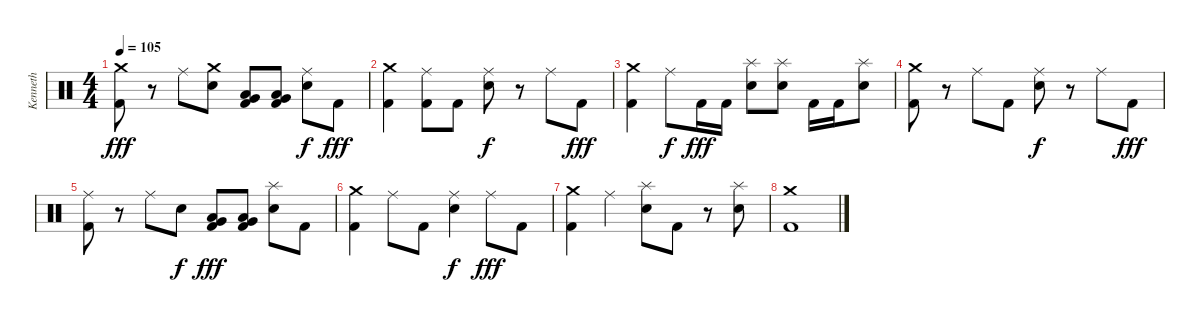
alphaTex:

\track ("Kenneth" "Kenneth") {instrument percussion}
\staff {score}
\articulation defaults
\ts (4 4)
\tempo 105
\clef neutral
\ks c
("Crash medium (hit)" "Kick (hit) 2").8{dy fff} r.8 "Ride (middle)".8 ("Crash medium (hit)" "Electric Snare (hit)").8 ("Low Tom (hit)" "Very Low Tom (hit)" "Kick (hit) 2").8 ("Low Tom (hit)" "Very Low Tom (hit)" "Kick (hit) 2").8 ("Ride (middle)" "Electric Snare (hit)").8{dy f} "Kick (hit) 2".8{dy fff} |
("Crash medium (hit)" "Kick (hit) 2").4 ("Ride (middle)" "Kick (hit) 2").8 "Kick (hit) 2".8 ("Ride (middle)" "Electric Snare (hit)").8{dy f} r.8 "Ride (middle)".8 "Kick (hit) 2".8{dy fff} |
("Crash medium (hit)" "Kick (hit) 2").4 "Ride (middle)".8{dy f} "Kick (hit) 2".16{dy fff} "Kick (hit) 2".16 ("Splash (hit)" "Electric Snare (hit)").8 ("Splash (hit)" "Electric Snare (hit)").8 "Kick (hit) 2".16 "Kick (hit) 2".16 ("Splash (hit)" "Electric Snare (hit)").8 |
("Crash medium (hit)" "Kick (hit) 2").8 r.8 "Ride (middle)".8 "Kick (hit) 2".8 ("Ride (middle)" "Electric Snare (hit)").8{dy f} r.8 "Ride (middle)".8 "Kick (hit) 2".8{dy fff} |
("Ride (middle)" "Kick (hit) 2").8 r.8 "Ride (middle)".8 "Electric Snare (hit)".8{dy f} ("Low Tom (hit)" "Very Low Tom (hit)" "Kick (hit) 2").8{dy fff} ("Low Tom (hit)" "Very Low Tom (hit)" "Kick (hit) 2").8 ("Splash (hit)" "Electric Snare (hit)").8 "Kick (hit) 2".8 |
("Crash medium (hit)" "Kick (hit) 2").4 "Ride (middle)".8 "Kick (hit) 2".8 ("Ride (middle)" "Electric Snare (hit)").4{dy f} "Ride (middle)".8{dy fff} "Kick (hit) 2".8 |
("Crash medium (hit)" "Kick (hit) 2").4 "Ride (middle)".4 ("Splash (hit)" "Electric Snare (hit)").8 "Kick (hit) 2".8 r.8 ("Splash (hit)" "Electric Snare (hit)").8 |
("Crash medium (hit)" "Kick (hit) 2").1
